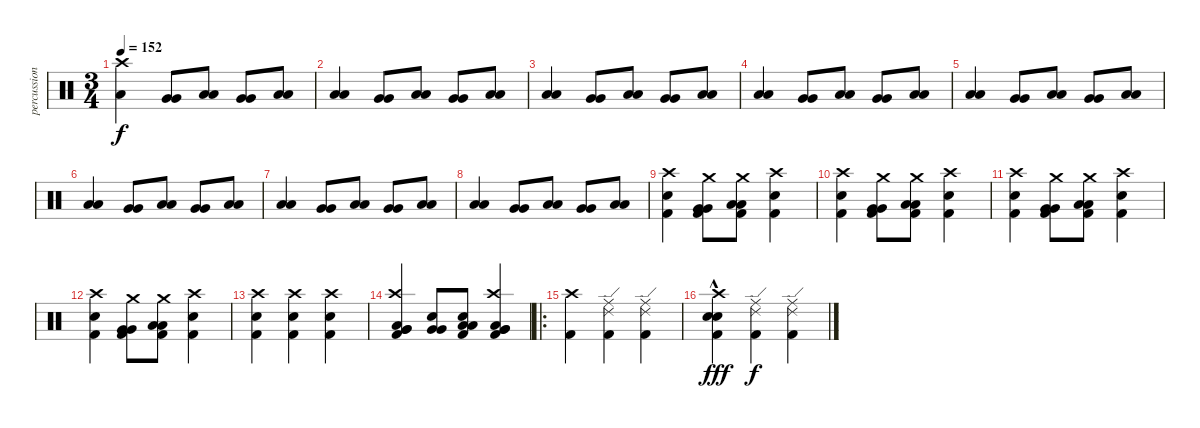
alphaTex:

\track ("percussion" "percussion") {instrument percussion bank 177}
\staff {score}
\articulation defaults
\ts (3 4)
\tempo 152
\clef neutral
\ks c
("Low Tom (hit)" "Crash high (hit)").4{dy f} ("Very Low Tom (hit)" "Very Low Tom (hit)").8 ("Low Tom (hit)" "Low Tom (hit)").8 ("Very Low Tom (hit)" "Very Low Tom (hit)").8 ("Low Tom (hit)" "Low Tom (hit)").8 |
("Low Tom (hit)" "Low Tom (hit)").4 ("Very Low Tom (hit)" "Very Low Tom (hit)").8 ("Low Tom (hit)" "Low Tom (hit)").8 ("Very Low Tom (hit)" "Very Low Tom (hit)").8 ("Low Tom (hit)" "Low Tom (hit)").8 |
("Low Tom (hit)" "Low Tom (hit)").4 ("Very Low Tom (hit)" "Very Low Tom (hit)").8 ("Low Tom (hit)" "Low Tom (hit)").8 ("Very Low Tom (hit)" "Very Low Tom (hit)").8 ("Low Tom (hit)" "Low Tom (hit)").8 |
("Low Tom (hit)" "Low Tom (hit)").4 ("Very Low Tom (hit)" "Very Low Tom (hit)").8 ("Low Tom (hit)" "Low Tom (hit)").8 ("Very Low Tom (hit)" "Very Low Tom (hit)").8 ("Low Tom (hit)" "Low Tom (hit)").8 |
("Low Tom (hit)" "Low Tom (hit)").4 ("Very Low Tom (hit)" "Very Low Tom (hit)").8 ("Low Tom (hit)" "Low Tom (hit)").8 ("Very Low Tom (hit)" "Very Low Tom (hit)").8 ("Low Tom (hit)" "Low Tom (hit)").8 |
("Low Tom (hit)" "Low Tom (hit)").4 ("Very Low Tom (hit)" "Very Low Tom (hit)").8 ("Low Tom (hit)" "Low Tom (hit)").8 ("Very Low Tom (hit)" "Very Low Tom (hit)").8 ("Low Tom (hit)" "Low Tom (hit)").8 |
("Low Tom (hit)" "Low Tom (hit)").4 ("Very Low Tom (hit)" "Very Low Tom (hit)").8 ("Low Tom (hit)" "Low Tom (hit)").8 ("Very Low Tom (hit)" "Very Low Tom (hit)").8 ("Low Tom (hit)" "Low Tom (hit)").8 |
("Low Tom (hit)" "Low Tom (hit)").4 ("Very Low Tom (hit)" "Very Low Tom (hit)").8 ("Low Tom (hit)" "Low Tom (hit)").8 ("Very Low Tom (hit)" "Very Low Tom (hit)").8 ("Low Tom (hit)" "Low Tom (hit)").8 |
("Kick (hit) 2" "Electric Snare (hit)" "Crash high (hit)").4 ("Kick (hit) 2" "Very Low Tom (hit)" "Very Low Tom (hit)" "Crash medium (hit)").8 ("Kick (hit) 2" "Low Tom (hit)" "Low Tom (hit)" "Crash medium (hit)").8 ("Kick (hit) 2" "Electric Snare (hit)" "Crash high (hit)").4 |
("Kick (hit) 2" "Electric Snare (hit)" "Crash high (hit)").4 ("Kick (hit) 2" "Very Low Tom (hit)" "Very Low Tom (hit)" "Crash medium (hit)").8 ("Kick (hit) 2" "Low Tom (hit)" "Low Tom (hit)" "Crash medium (hit)").8 ("Kick (hit) 2" "Electric Snare (hit)" "Crash high (hit)").4 |
("Kick (hit) 2" "Electric Snare (hit)" "Crash high (hit)").4 ("Kick (hit) 2" "Very Low Tom (hit)" "Very Low Tom (hit)" "Crash medium (hit)").8 ("Kick (hit) 2" "Low Tom (hit)" "Low Tom (hit)" "Crash medium (hit)").8 ("Kick (hit) 2" "Electric Snare (hit)" "Crash high (hit)").4 |
("Kick (hit) 2" "Electric Snare (hit)" "Crash high (hit)").4 ("Kick (hit) 2" "Very Low Tom (hit)" "Very Low Tom (hit)" "Crash medium (hit)").8 ("Kick (hit) 2" "Low Tom (hit)" "Low Tom (hit)" "Crash medium (hit)").8 ("Kick (hit) 2" "Electric Snare (hit)" "Crash high (hit)").4 |
("Kick (hit) 2" "Electric Snare (hit)" "Crash high (hit)").4 ("Kick (hit) 2" "Electric Snare (hit)" "Crash high (hit)").4 ("Kick (hit) 2" "Electric Snare (hit)" "Crash high (hit)").4 |
("Kick (hit) 2" "Very Low Tom (hit)" "Very Low Tom (hit)" "Low Tom (hit)" "Crash high (hit)").4 ("Electric Snare (hit)" "Very Low Tom (hit)" "Very Low Tom (hit)").8 ("Kick (hit) 2" "Electric Snare (hit)" "Low Tom (hit)" "Low Tom (hit)").8 ("Kick (hit) 2" "Very Low Tom (hit)" "Very Low Tom (hit)" "Low Tom (hit)" "Crash high (hit)").4 |
\ro
("Kick (hit) 2" "Crash high (hit)").4 ("Kick (hit) 2" "Ride (edge) 2" "Ride (middle)").4 ("Kick (hit) 2" "Ride (edge) 2" "Ride (middle)").4 |
("Kick (hit) 2" "Electric Snare (hit)"{hac} "Electric Snare (hit)"{hac} "Crash high (hit)").4{dy fff} ("Kick (hit) 2" "Ride (edge) 2" "Ride (middle)").4{dy f} ("Kick (hit) 2" "Ride (edge) 2" "Ride (middle)").4
